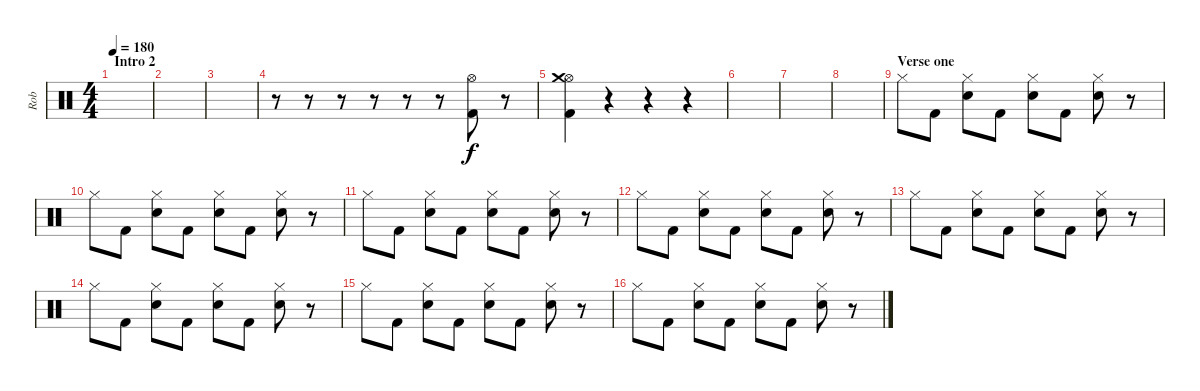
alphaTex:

\track ("Rob" "Rob") {instrument percussion}
\staff {score}
\articulation defaults
\ts (4 4)
\section ("" "Intro 2")
\tempo 180
\clef neutral
\ks c
|
|
|
r.8 r.8 r.8 r.8 r.8 r.8 ("Hi-Hat (open)" "Kick (hit) 2").8 r.8 |
("Hi-Hat (open)" "Kick (hit) 2" "Crash medium (hit)").4 r.4 r.4 r.4 |
|
|
|
\section ("" "Verse one")
"Hi-Hat (closed)".8 "Kick (hit) 2".8 ("Hi-Hat (closed)" "Electric Snare (hit)").8 "Kick (hit) 2".8 ("Hi-Hat (closed)" "Electric Snare (hit)").8 "Kick (hit) 2".8 ("Hi-Hat (closed)" "Electric Snare (hit)").8 r.8 |
"Hi-Hat (closed)".8 "Kick (hit) 2".8 ("Hi-Hat (closed)" "Electric Snare (hit)").8 "Kick (hit) 2".8 ("Hi-Hat (closed)" "Electric Snare (hit)").8 "Kick (hit) 2".8 ("Hi-Hat (closed)" "Electric Snare (hit)").8 r.8 |
"Hi-Hat (closed)".8 "Kick (hit) 2".8 ("Hi-Hat (closed)" "Electric Snare (hit)").8 "Kick (hit) 2".8 ("Hi-Hat (closed)" "Electric Snare (hit)").8 "Kick (hit) 2".8 ("Hi-Hat (closed)" "Electric Snare (hit)").8 r.8 |
"Hi-Hat (closed)".8 "Kick (hit) 2".8 ("Hi-Hat (closed)" "Electric Snare (hit)").8 "Kick (hit) 2".8 ("Hi-Hat (closed)" "Electric Snare (hit)").8 "Kick (hit) 2".8 ("Hi-Hat (closed)" "Electric Snare (hit)").8 r.8 |
"Hi-Hat (closed)".8 "Kick (hit) 2".8 ("Hi-Hat (closed)" "Electric Snare (hit)").8 "Kick (hit) 2".8 ("Hi-Hat (closed)" "Electric Snare (hit)").8 "Kick (hit) 2".8 ("Hi-Hat (closed)" "Electric Snare (hit)").8 r.8 |
"Hi-Hat (closed)".8 "Kick (hit) 2".8 ("Hi-Hat (closed)" "Electric Snare (hit)").8 "Kick (hit) 2".8 ("Hi-Hat (closed)" "Electric Snare (hit)").8 "Kick (hit) 2".8 ("Hi-Hat (closed)" "Electric Snare (hit)").8 r.8 |
"Hi-Hat (closed)".8 "Kick (hit) 2".8 ("Hi-Hat (closed)" "Electric Snare (hit)").8 "Kick (hit) 2".8 ("Hi-Hat (closed)" "Electric Snare (hit)").8 "Kick (hit) 2".8 ("Hi-Hat (closed)" "Electric Snare (hit)").8 r.8 |
"Hi-Hat (closed)".8 "Kick (hit) 2".8 ("Hi-Hat (closed)" "Electric Snare (hit)").8 "Kick (hit) 2".8 ("Hi-Hat (closed)" "Electric Snare (hit)").8 "Kick (hit) 2".8 ("Hi-Hat (closed)" "Electric Snare (hit)").8 r.8
